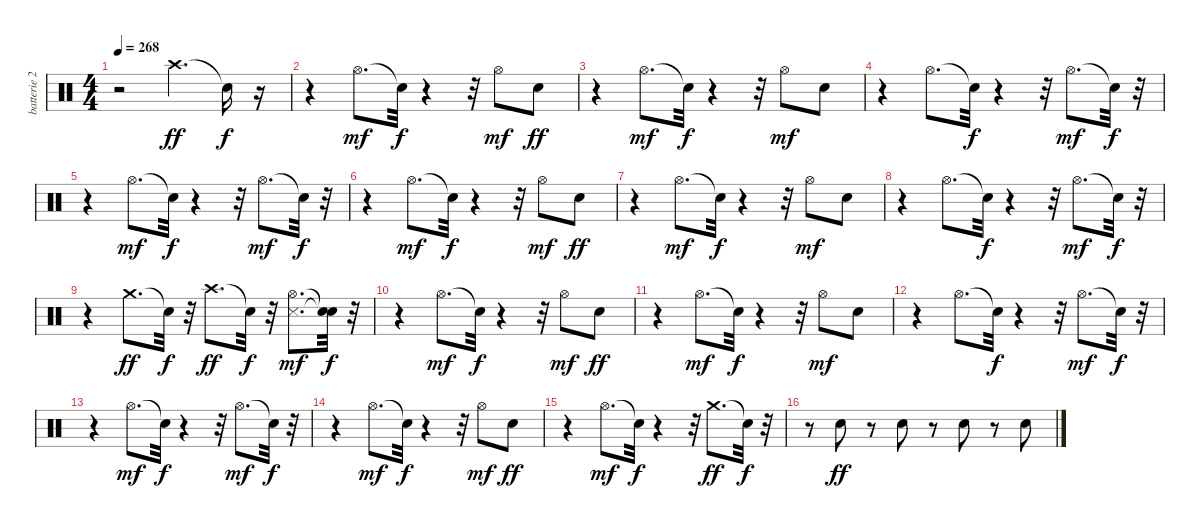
\track ("batterie 2" "batterie 2") {instrument percussion}
\staff {score}
\articulation defaults
\ts (4 4)
\tempo 268
\clef neutral
\ks c
r.2{dy f} "Crash high (hit)".4{d dy ff} "Snare (hit)"{t}.16{dy f} r.16 |
r.4 "Hi-Hat (open)".8{d dy mf} "Snare (hit)"{t}.32{dy f} r.4 r.32 "Hi-Hat (open)".8{dy mf} "Electric Snare (hit)".8{dy ff} |
r.4 "Hi-Hat (open)".8{d dy mf} "Snare (hit)"{t}.32{dy f} r.4 r.32 "Hi-Hat (open)".8{dy mf} "Electric Snare (hit)".8 |
r.4 "Hi-Hat (open)".8{d} "Snare (hit)"{t}.32{dy f} r.4 r.32 "Hi-Hat (open)".8{d dy mf} "Snare (hit)"{t}.32{dy f} r.32 |
r.4 "Hi-Hat (open)".8{d dy mf} "Snare (hit)"{t}.32{dy f} r.4 r.32 "Hi-Hat (open)".8{d dy mf} "Snare (hit)"{t}.32{dy f} r.32 |
r.4 "Hi-Hat (open)".8{d dy mf} "Snare (hit)"{t}.32{dy f} r.4 r.32 "Hi-Hat (open)".8{dy mf} "Electric Snare (hit)".8{dy ff} |
r.4 "Hi-Hat (open)".8{d dy mf} "Snare (hit)"{t}.32{dy f} r.4 r.32 "Hi-Hat (open)".8{dy mf} "Electric Snare (hit)".8 |
r.4 "Hi-Hat (open)".8{d} "Snare (hit)"{t}.32{dy f} r.4 r.32 "Hi-Hat (open)".8{d dy mf} "Snare (hit)"{t}.32{dy f} r.32 |
r.4 "Crash medium (hit)".8{d dy ff} "Snare (hit)"{t}.32{dy f} r.32 "Crash high (hit)".8{d dy ff} "Snare (hit)"{t}.32{dy f} r.32 ("Snare (side stick) 3" "Hi-Hat (open)").8{d dy mf} ("Snare (hit)"{t} "Snare (hit)"{t}).32{dy f} r.32 |
r.4 "Hi-Hat (open)".8{d dy mf} "Snare (hit)"{t}.32{dy f} r.4 r.32 "Hi-Hat (open)".8{dy mf} "Electric Snare (hit)".8{dy ff} |
r.4 "Hi-Hat (open)".8{d dy mf} "Snare (hit)"{t}.32{dy f} r.4 r.32 "Hi-Hat (open)".8{dy mf} "Electric Snare (hit)".8 |
r.4 "Hi-Hat (open)".8{d} "Snare (hit)"{t}.32{dy f} r.4 r.32 "Hi-Hat (open)".8{d dy mf} "Snare (hit)"{t}.32{dy f} r.32 |
r.4 "Hi-Hat (open)".8{d dy mf} "Snare (hit)"{t}.32{dy f} r.4 r.32 "Hi-Hat (open)".8{d dy mf} "Snare (hit)"{t}.32{dy f} r.32 |
r.4 "Hi-Hat (open)".8{d dy mf} "Snare (hit)"{t}.32{dy f} r.4 r.32 "Hi-Hat (open)".8{dy mf} "Electric Snare (hit)".8{dy ff} |
r.4 "Hi-Hat (open)".8{d dy mf} "Snare (hit)"{t}.32{dy f} r.4 r.32 "Crash medium (hit)".8{d dy ff} "Snare (hit)"{t}.32{dy f} r.32 |
r.8 "Electric Snare (hit)".8{dy ff} r.8 "Electric Snare (hit)".8 r.8 "Electric Snare (hit)".8 r.8 "Electric Snare (hit)".8
